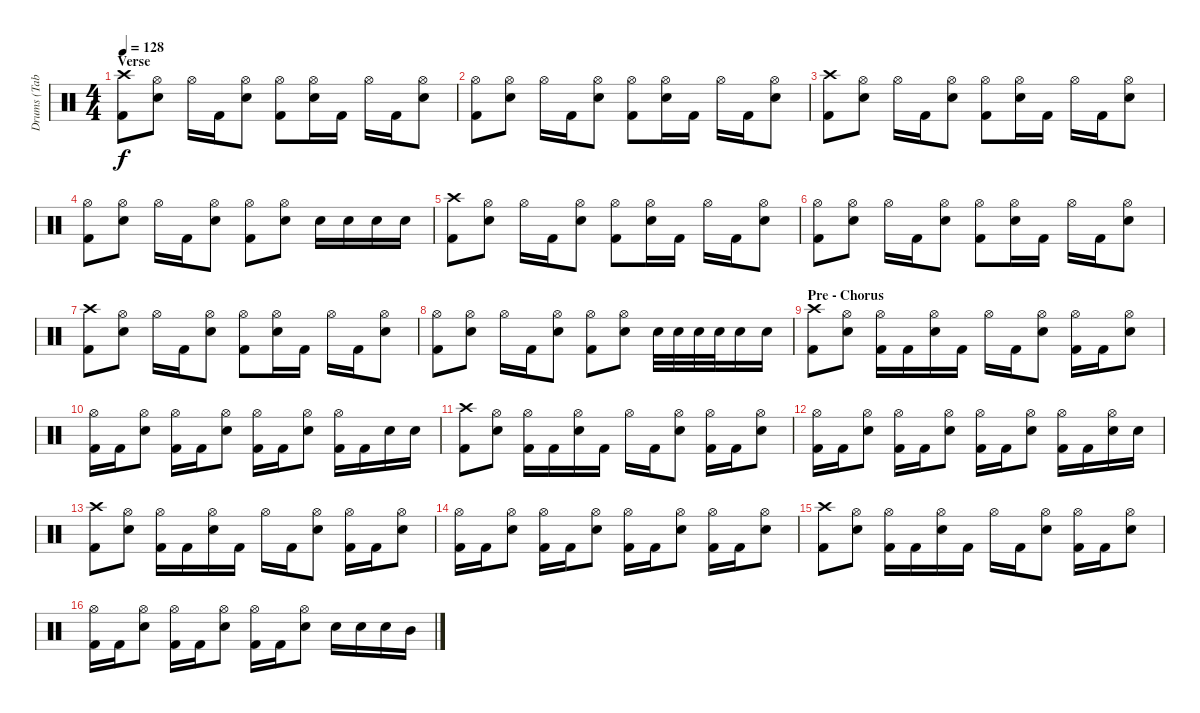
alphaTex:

\track ("Drums (Tabbed by: Leonardo_codev)" "Drums (Tab") {instrument percussion}
\staff {score}
\articulation defaults
\ts (4 4)
\section ("" "Verse")
\tempo 128
\clef neutral
\ks c
("Crash high (hit)" "Kick (hit) 2").8{dy f} ("Hi-Hat (open)" "Electric Snare (hit)").8 "Hi-Hat (open)".16 "Kick (hit) 2".16 ("Hi-Hat (open)" "Electric Snare (hit)").8 ("Hi-Hat (open)" "Kick (hit) 2").8 ("Hi-Hat (open)" "Electric Snare (hit)").16 "Kick (hit) 2".16 "Hi-Hat (open)".16 "Kick (hit) 2".16 ("Hi-Hat (open)" "Electric Snare (hit)").8 |
("Hi-Hat (open)" "Kick (hit) 2").8 ("Hi-Hat (open)" "Electric Snare (hit)").8 "Hi-Hat (open)".16 "Kick (hit) 2".16 ("Hi-Hat (open)" "Electric Snare (hit)").8 ("Hi-Hat (open)" "Kick (hit) 2").8 ("Hi-Hat (open)" "Electric Snare (hit)").16 "Kick (hit) 2".16 "Hi-Hat (open)".16 "Kick (hit) 2".16 ("Hi-Hat (open)" "Electric Snare (hit)").8 |
("Crash high (hit)" "Kick (hit) 2").8 ("Hi-Hat (open)" "Electric Snare (hit)").8 "Hi-Hat (open)".16 "Kick (hit) 2".16 ("Hi-Hat (open)" "Electric Snare (hit)").8 ("Hi-Hat (open)" "Kick (hit) 2").8 ("Hi-Hat (open)" "Electric Snare (hit)").16 "Kick (hit) 2".16 "Hi-Hat (open)".16 "Kick (hit) 2".16 ("Hi-Hat (open)" "Electric Snare (hit)").8 |
("Hi-Hat (open)" "Kick (hit) 2").8 ("Hi-Hat (open)" "Electric Snare (hit)").8 "Hi-Hat (open)".16 "Kick (hit) 2".16 ("Hi-Hat (open)" "Electric Snare (hit)").8 ("Hi-Hat (open)" "Kick (hit) 2").8 ("Hi-Hat (open)" "Electric Snare (hit)").8 "Electric Snare (hit)".16 "Electric Snare (hit)".16 "Electric Snare (hit)".16 "Electric Snare (hit)".16 |
("Crash high (hit)" "Kick (hit) 2").8 ("Hi-Hat (open)" "Electric Snare (hit)").8 "Hi-Hat (open)".16 "Kick (hit) 2".16 ("Hi-Hat (open)" "Electric Snare (hit)").8 ("Hi-Hat (open)" "Kick (hit) 2").8 ("Hi-Hat (open)" "Electric Snare (hit)").16 "Kick (hit) 2".16 "Hi-Hat (open)".16 "Kick (hit) 2".16 ("Hi-Hat (open)" "Electric Snare (hit)").8 |
("Hi-Hat (open)" "Kick (hit) 2").8 ("Hi-Hat (open)" "Electric Snare (hit)").8 "Hi-Hat (open)".16 "Kick (hit) 2".16 ("Hi-Hat (open)" "Electric Snare (hit)").8 ("Hi-Hat (open)" "Kick (hit) 2").8 ("Hi-Hat (open)" "Electric Snare (hit)").16 "Kick (hit) 2".16 "Hi-Hat (open)".16 "Kick (hit) 2".16 ("Hi-Hat (open)" "Electric Snare (hit)").8 |
("Crash high (hit)" "Kick (hit) 2").8 ("Hi-Hat (open)" "Electric Snare (hit)").8 "Hi-Hat (open)".16 "Kick (hit) 2".16 ("Hi-Hat (open)" "Electric Snare (hit)").8 ("Hi-Hat (open)" "Kick (hit) 2").8 ("Hi-Hat (open)" "Electric Snare (hit)").16 "Kick (hit) 2".16 "Hi-Hat (open)".16 "Kick (hit) 2".16 ("Hi-Hat (open)" "Electric Snare (hit)").8 |
("Hi-Hat (open)" "Kick (hit) 2").8 ("Hi-Hat (open)" "Electric Snare (hit)").8 "Hi-Hat (open)".16 "Kick (hit) 2".16 ("Hi-Hat (open)" "Electric Snare (hit)").8 ("Hi-Hat (open)" "Kick (hit) 2").8 ("Hi-Hat (open)" "Electric Snare (hit)").8 "Electric Snare (hit)".32 "Electric Snare (hit)".32 "Electric Snare (hit)".32 "Electric Snare (hit)".32 "Electric Snare (hit)".16 "Electric Snare (hit)".16 |
\section ("" "Pre - Chorus")
("Crash high (hit)" "Kick (hit) 2").8 ("Hi-Hat (open)" "Electric Snare (hit)").8 ("Hi-Hat (open)" "Kick (hit) 2").16 "Kick (hit) 2".16 ("Hi-Hat (open)" "Electric Snare (hit)").16 "Kick (hit) 2".16 "Hi-Hat (open)".16 "Kick (hit) 2".16 ("Hi-Hat (open)" "Electric Snare (hit)").8 ("Hi-Hat (open)" "Kick (hit) 2").16 "Kick (hit) 2".16 ("Hi-Hat (open)" "Electric Snare (hit)").8 |
("Hi-Hat (open)" "Kick (hit) 2").16 "Kick (hit) 2".16 ("Hi-Hat (open)" "Electric Snare (hit)").8 ("Hi-Hat (open)" "Kick (hit) 2").16 "Kick (hit) 2".16 ("Hi-Hat (open)" "Electric Snare (hit)").8 ("Hi-Hat (open)" "Kick (hit) 2").16 "Kick (hit) 2".16 ("Hi-Hat (open)" "Electric Snare (hit)").8 ("Hi-Hat (open)" "Kick (hit) 2").16 "Kick (hit) 2".16 "Electric Snare (hit)".16 "Electric Snare (hit)".16 |
("Crash high (hit)" "Kick (hit) 2").8 ("Hi-Hat (open)" "Electric Snare (hit)").8 ("Hi-Hat (open)" "Kick (hit) 2").16 "Kick (hit) 2".16 ("Hi-Hat (open)" "Electric Snare (hit)").16 "Kick (hit) 2".16 "Hi-Hat (open)".16 "Kick (hit) 2".16 ("Hi-Hat (open)" "Electric Snare (hit)").8 ("Hi-Hat (open)" "Kick (hit) 2").16 "Kick (hit) 2".16 ("Hi-Hat (open)" "Electric Snare (hit)").8 |
("Hi-Hat (open)" "Kick (hit) 2").16 "Kick (hit) 2".16 ("Hi-Hat (open)" "Electric Snare (hit)").8 ("Hi-Hat (open)" "Kick (hit) 2").16 "Kick (hit) 2".16 ("Hi-Hat (open)" "Electric Snare (hit)").8 ("Hi-Hat (open)" "Kick (hit) 2").16 "Kick (hit) 2".16 ("Hi-Hat (open)" "Electric Snare (hit)").8 ("Hi-Hat (open)" "Kick (hit) 2").16 "Kick (hit) 2".16 ("Hi-Hat (open)" "Electric Snare (hit)").16 "Electric Snare (hit)".16 |
("Crash high (hit)" "Kick (hit) 2").8 ("Hi-Hat (open)" "Electric Snare (hit)").8 ("Hi-Hat (open)" "Kick (hit) 2").16 "Kick (hit) 2".16 ("Hi-Hat (open)" "Electric Snare (hit)").16 "Kick (hit) 2".16 "Hi-Hat (open)".16 "Kick (hit) 2".16 ("Hi-Hat (open)" "Electric Snare (hit)").8 ("Hi-Hat (open)" "Kick (hit) 2").16 "Kick (hit) 2".16 ("Hi-Hat (open)" "Electric Snare (hit)").8 |
("Hi-Hat (open)" "Kick (hit) 2").16 "Kick (hit) 2".16 ("Hi-Hat (open)" "Electric Snare (hit)").8 ("Hi-Hat (open)" "Kick (hit) 2").16 "Kick (hit) 2".16 ("Hi-Hat (open)" "Electric Snare (hit)").8 ("Hi-Hat (open)" "Kick (hit) 2").16 "Kick (hit) 2".16 ("Hi-Hat (open)" "Electric Snare (hit)").8 ("Hi-Hat (open)" "Kick (hit) 2").16 "Kick (hit) 2".16 ("Hi-Hat (open)" "Electric Snare (hit)").8 |
("Crash high (hit)" "Kick (hit) 2").8 ("Hi-Hat (open)" "Electric Snare (hit)").8 ("Hi-Hat (open)" "Kick (hit) 2").16 "Kick (hit) 2".16 ("Hi-Hat (open)" "Electric Snare (hit)").16 "Kick (hit) 2".16 "Hi-Hat (open)".16 "Kick (hit) 2".16 ("Hi-Hat (open)" "Electric Snare (hit)").8 ("Hi-Hat (open)" "Kick (hit) 2").16 "Kick (hit) 2".16 ("Hi-Hat (open)" "Electric Snare (hit)").8 |
("Hi-Hat (open)" "Kick (hit) 2").16 "Kick (hit) 2".16 ("Hi-Hat (open)" "Electric Snare (hit)").8 ("Hi-Hat (open)" "Kick (hit) 2").16 "Kick (hit) 2".16 ("Hi-Hat (open)" "Electric Snare (hit)").8 ("Hi-Hat (open)" "Kick (hit) 2").16 "Kick (hit) 2".16 ("Hi-Hat (open)" "Electric Snare (hit)").8 "Electric Snare (hit)".16 "Electric Snare (hit)".16 "Electric Snare (hit)".16 "Mid Tom (hit)".16
